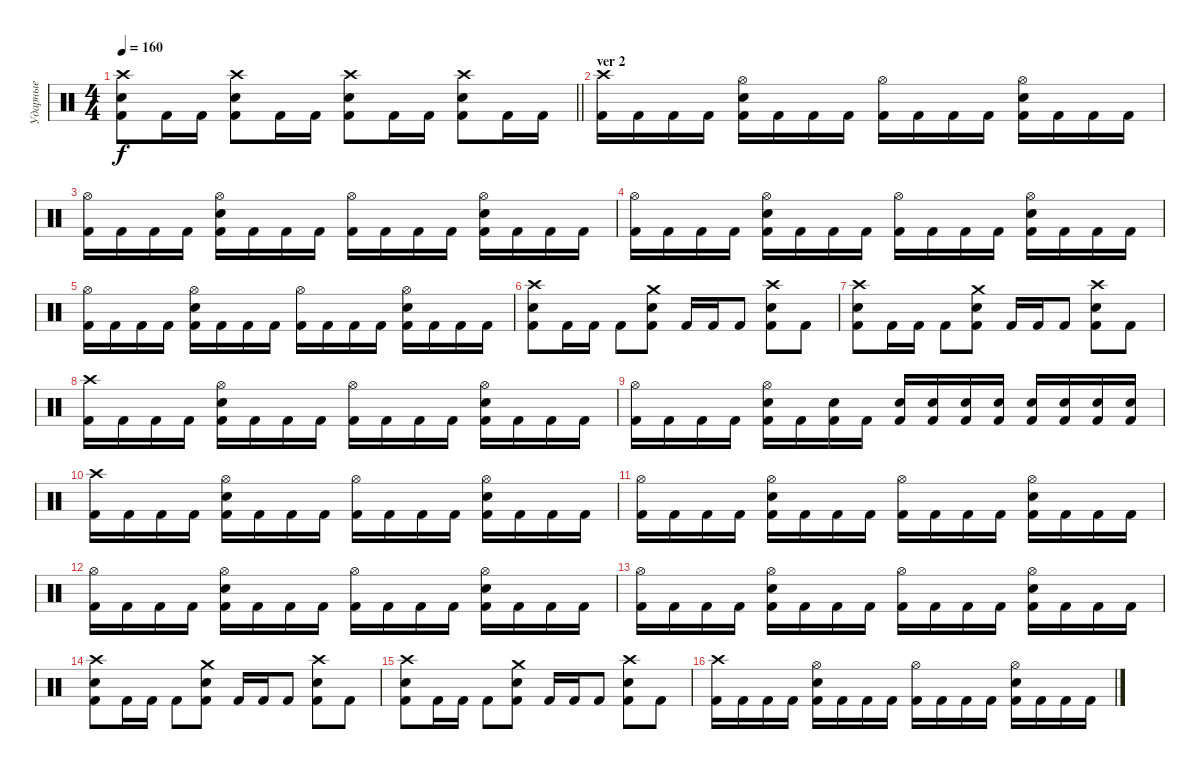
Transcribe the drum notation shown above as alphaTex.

\track ("Ударные" "Ударные") {instrument percussion}
\staff {score}
\articulation defaults
\ts (4 4)
\tempo 160
\clef neutral
\barLineRight lightlight
\ks c
("Crash high (hit)" "Electric Snare (hit)" "Kick (hit) 2").8{dy f} "Kick (hit) 2".16 "Kick (hit) 2".16 ("Crash high (hit)" "Electric Snare (hit)" "Kick (hit) 2").8 "Kick (hit) 2".16 "Kick (hit) 2".16 ("Crash high (hit)" "Electric Snare (hit)" "Kick (hit) 2").8 "Kick (hit) 2".16 "Kick (hit) 2".16 ("Crash high (hit)" "Electric Snare (hit)" "Kick (hit) 2").8 "Kick (hit) 2".16 "Kick (hit) 2".16 |
\section ("" "ver 2")
("Crash high (hit)" "Kick (hit) 2").16 "Kick (hit) 2".16 "Kick (hit) 2".16 "Kick (hit) 2".16 ("Hi-Hat (open)" "Electric Snare (hit)" "Kick (hit) 2").16 "Kick (hit) 2".16 "Kick (hit) 2".16 "Kick (hit) 2".16 ("Hi-Hat (open)" "Kick (hit) 2").16 "Kick (hit) 2".16 "Kick (hit) 2".16 "Kick (hit) 2".16 ("Hi-Hat (open)" "Electric Snare (hit)" "Kick (hit) 2").16 "Kick (hit) 2".16 "Kick (hit) 2".16 "Kick (hit) 2".16 |
("Hi-Hat (open)" "Kick (hit) 2").16 "Kick (hit) 2".16 "Kick (hit) 2".16 "Kick (hit) 2".16 ("Hi-Hat (open)" "Electric Snare (hit)" "Kick (hit) 2").16 "Kick (hit) 2".16 "Kick (hit) 2".16 "Kick (hit) 2".16 ("Hi-Hat (open)" "Kick (hit) 2").16 "Kick (hit) 2".16 "Kick (hit) 2".16 "Kick (hit) 2".16 ("Hi-Hat (open)" "Electric Snare (hit)" "Kick (hit) 2").16 "Kick (hit) 2".16 "Kick (hit) 2".16 "Kick (hit) 2".16 |
("Hi-Hat (open)" "Kick (hit) 2").16 "Kick (hit) 2".16 "Kick (hit) 2".16 "Kick (hit) 2".16 ("Hi-Hat (open)" "Electric Snare (hit)" "Kick (hit) 2").16 "Kick (hit) 2".16 "Kick (hit) 2".16 "Kick (hit) 2".16 ("Hi-Hat (open)" "Kick (hit) 2").16 "Kick (hit) 2".16 "Kick (hit) 2".16 "Kick (hit) 2".16 ("Hi-Hat (open)" "Electric Snare (hit)" "Kick (hit) 2").16 "Kick (hit) 2".16 "Kick (hit) 2".16 "Kick (hit) 2".16 |
("Hi-Hat (open)" "Kick (hit) 2").16 "Kick (hit) 2".16 "Kick (hit) 2".16 "Kick (hit) 2".16 ("Hi-Hat (open)" "Electric Snare (hit)" "Kick (hit) 2").16 "Kick (hit) 2".16 "Kick (hit) 2".16 "Kick (hit) 2".16 ("Hi-Hat (open)" "Kick (hit) 2").16 "Kick (hit) 2".16 "Kick (hit) 2".16 "Kick (hit) 2".16 ("Hi-Hat (open)" "Electric Snare (hit)" "Kick (hit) 2").16 "Kick (hit) 2".16 "Kick (hit) 2".16 "Kick (hit) 2".16 |
("Crash high (hit)" "Electric Snare (hit)" "Kick (hit) 2").8 "Kick (hit) 2".16 "Kick (hit) 2".16 "Kick (hit) 2".8 ("Crash medium (hit)" "Electric Snare (hit)" "Kick (hit) 2").8 "Kick (hit) 2".16 "Kick (hit) 2".16 "Kick (hit) 2".8 ("Crash high (hit)" "Electric Snare (hit)" "Kick (hit) 2").8 "Kick (hit) 2".8 |
("Crash high (hit)" "Electric Snare (hit)" "Kick (hit) 2").8 "Kick (hit) 2".16 "Kick (hit) 2".16 "Kick (hit) 2".8 ("Crash medium (hit)" "Electric Snare (hit)" "Kick (hit) 2").8 "Kick (hit) 2".16 "Kick (hit) 2".16 "Kick (hit) 2".8 ("Crash high (hit)" "Electric Snare (hit)" "Kick (hit) 2").8 "Kick (hit) 2".8 |
("Crash high (hit)" "Kick (hit) 2").16 "Kick (hit) 2".16 "Kick (hit) 2".16 "Kick (hit) 2".16 ("Hi-Hat (open)" "Electric Snare (hit)" "Kick (hit) 2").16 "Kick (hit) 2".16 "Kick (hit) 2".16 "Kick (hit) 2".16 ("Hi-Hat (open)" "Kick (hit) 2").16 "Kick (hit) 2".16 "Kick (hit) 2".16 "Kick (hit) 2".16 ("Hi-Hat (open)" "Electric Snare (hit)" "Kick (hit) 2").16 "Kick (hit) 2".16 "Kick (hit) 2".16 "Kick (hit) 2".16 |
("Hi-Hat (open)" "Kick (hit) 2").16 "Kick (hit) 2".16 "Kick (hit) 2".16 "Kick (hit) 2".16 ("Hi-Hat (open)" "Electric Snare (hit)" "Kick (hit) 2").16 "Kick (hit) 2".16 ("Electric Snare (hit)" "Kick (hit) 2").16 "Kick (hit) 2".16 ("Electric Snare (hit)" "Kick (hit) 2").16 ("Electric Snare (hit)" "Kick (hit) 2").16 ("Electric Snare (hit)" "Kick (hit) 2").16 ("Electric Snare (hit)" "Kick (hit) 2").16 ("Electric Snare (hit)" "Kick (hit) 2").16 ("Electric Snare (hit)" "Kick (hit) 2").16 ("Electric Snare (hit)" "Kick (hit) 2").16 ("Electric Snare (hit)" "Kick (hit) 2").16 |
("Crash high (hit)" "Kick (hit) 2").16 "Kick (hit) 2".16 "Kick (hit) 2".16 "Kick (hit) 2".16 ("Hi-Hat (open)" "Electric Snare (hit)" "Kick (hit) 2").16 "Kick (hit) 2".16 "Kick (hit) 2".16 "Kick (hit) 2".16 ("Hi-Hat (open)" "Kick (hit) 2").16 "Kick (hit) 2".16 "Kick (hit) 2".16 "Kick (hit) 2".16 ("Hi-Hat (open)" "Electric Snare (hit)" "Kick (hit) 2").16 "Kick (hit) 2".16 "Kick (hit) 2".16 "Kick (hit) 2".16 |
("Hi-Hat (open)" "Kick (hit) 2").16 "Kick (hit) 2".16 "Kick (hit) 2".16 "Kick (hit) 2".16 ("Hi-Hat (open)" "Electric Snare (hit)" "Kick (hit) 2").16 "Kick (hit) 2".16 "Kick (hit) 2".16 "Kick (hit) 2".16 ("Hi-Hat (open)" "Kick (hit) 2").16 "Kick (hit) 2".16 "Kick (hit) 2".16 "Kick (hit) 2".16 ("Hi-Hat (open)" "Electric Snare (hit)" "Kick (hit) 2").16 "Kick (hit) 2".16 "Kick (hit) 2".16 "Kick (hit) 2".16 |
("Hi-Hat (open)" "Kick (hit) 2").16 "Kick (hit) 2".16 "Kick (hit) 2".16 "Kick (hit) 2".16 ("Hi-Hat (open)" "Electric Snare (hit)" "Kick (hit) 2").16 "Kick (hit) 2".16 "Kick (hit) 2".16 "Kick (hit) 2".16 ("Hi-Hat (open)" "Kick (hit) 2").16 "Kick (hit) 2".16 "Kick (hit) 2".16 "Kick (hit) 2".16 ("Hi-Hat (open)" "Electric Snare (hit)" "Kick (hit) 2").16 "Kick (hit) 2".16 "Kick (hit) 2".16 "Kick (hit) 2".16 |
("Hi-Hat (open)" "Kick (hit) 2").16 "Kick (hit) 2".16 "Kick (hit) 2".16 "Kick (hit) 2".16 ("Hi-Hat (open)" "Electric Snare (hit)" "Kick (hit) 2").16 "Kick (hit) 2".16 "Kick (hit) 2".16 "Kick (hit) 2".16 ("Hi-Hat (open)" "Kick (hit) 2").16 "Kick (hit) 2".16 "Kick (hit) 2".16 "Kick (hit) 2".16 ("Hi-Hat (open)" "Electric Snare (hit)" "Kick (hit) 2").16 "Kick (hit) 2".16 "Kick (hit) 2".16 "Kick (hit) 2".16 |
("Crash high (hit)" "Electric Snare (hit)" "Kick (hit) 2").8 "Kick (hit) 2".16 "Kick (hit) 2".16 "Kick (hit) 2".8 ("Crash medium (hit)" "Electric Snare (hit)" "Kick (hit) 2").8 "Kick (hit) 2".16 "Kick (hit) 2".16 "Kick (hit) 2".8 ("Crash high (hit)" "Electric Snare (hit)" "Kick (hit) 2").8 "Kick (hit) 2".8 |
("Crash high (hit)" "Electric Snare (hit)" "Kick (hit) 2").8 "Kick (hit) 2".16 "Kick (hit) 2".16 "Kick (hit) 2".8 ("Crash medium (hit)" "Electric Snare (hit)" "Kick (hit) 2").8 "Kick (hit) 2".16 "Kick (hit) 2".16 "Kick (hit) 2".8 ("Crash high (hit)" "Electric Snare (hit)" "Kick (hit) 2").8 "Kick (hit) 2".8 |
("Crash high (hit)" "Kick (hit) 2").16 "Kick (hit) 2".16 "Kick (hit) 2".16 "Kick (hit) 2".16 ("Hi-Hat (open)" "Electric Snare (hit)" "Kick (hit) 2").16 "Kick (hit) 2".16 "Kick (hit) 2".16 "Kick (hit) 2".16 ("Hi-Hat (open)" "Kick (hit) 2").16 "Kick (hit) 2".16 "Kick (hit) 2".16 "Kick (hit) 2".16 ("Hi-Hat (open)" "Electric Snare (hit)" "Kick (hit) 2").16 "Kick (hit) 2".16 "Kick (hit) 2".16 "Kick (hit) 2".16
